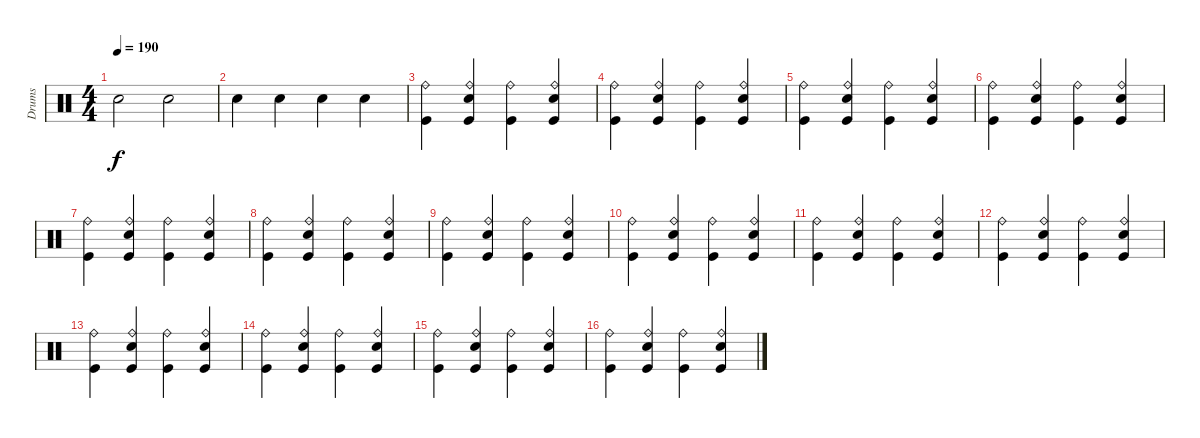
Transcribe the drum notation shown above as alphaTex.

\track ("Drums" "Drums") {instrument percussion}
\staff {score}
\articulation defaults
\ts (4 4)
\tempo 190
\clef neutral
\ks c "Electric Snare (hit)".2{dy f} "Electric Snare (hit)".2
|
"Electric Snare (hit)".4 "Electric Snare (hit)".4 "Electric Snare (hit)".4 "Electric Snare (hit)".4 |
("Kick (hit)" "Ride (bell)").4 ("Kick (hit)" "Snare (hit) 2" "Ride (bell)").4 ("Kick (hit)" "Ride (bell)").4 ("Kick (hit)" "Snare (hit) 2" "Ride (bell)").4 |
("Kick (hit)" "Ride (bell)").4 ("Kick (hit)" "Snare (hit) 2" "Ride (bell)").4 ("Kick (hit)" "Ride (bell)").4 ("Kick (hit)" "Snare (hit) 2" "Ride (bell)").4 |
("Kick (hit)" "Ride (bell)").4 ("Kick (hit)" "Snare (hit) 2" "Ride (bell)").4 ("Kick (hit)" "Ride (bell)").4 ("Kick (hit)" "Snare (hit) 2" "Ride (bell)").4 |
("Kick (hit)" "Ride (bell)").4 ("Kick (hit)" "Snare (hit) 2" "Ride (bell)").4 ("Kick (hit)" "Ride (bell)").4 ("Kick (hit)" "Snare (hit) 2" "Ride (bell)").4 |
("Kick (hit)" "Ride (bell)").4 ("Kick (hit)" "Snare (hit) 2" "Ride (bell)").4 ("Kick (hit)" "Ride (bell)").4 ("Kick (hit)" "Snare (hit) 2" "Ride (bell)").4 |
("Kick (hit)" "Ride (bell)").4 ("Kick (hit)" "Snare (hit) 2" "Ride (bell)").4 ("Kick (hit)" "Ride (bell)").4 ("Kick (hit)" "Snare (hit) 2" "Ride (bell)").4 |
("Kick (hit)" "Ride (bell)").4 ("Kick (hit)" "Snare (hit) 2" "Ride (bell)").4 ("Kick (hit)" "Ride (bell)").4 ("Kick (hit)" "Snare (hit) 2" "Ride (bell)").4 |
("Kick (hit)" "Ride (bell)").4 ("Kick (hit)" "Snare (hit) 2" "Ride (bell)").4 ("Kick (hit)" "Ride (bell)").4 ("Kick (hit)" "Snare (hit) 2" "Ride (bell)").4 |
("Kick (hit)" "Ride (bell)").4 ("Kick (hit)" "Snare (hit) 2" "Ride (bell)").4 ("Kick (hit)" "Ride (bell)").4 ("Kick (hit)" "Snare (hit) 2" "Ride (bell)").4 |
("Kick (hit)" "Ride (bell)").4 ("Kick (hit)" "Snare (hit) 2" "Ride (bell)").4 ("Kick (hit)" "Ride (bell)").4 ("Kick (hit)" "Snare (hit) 2" "Ride (bell)").4 |
("Kick (hit)" "Ride (bell)").4 ("Kick (hit)" "Snare (hit) 2" "Ride (bell)").4 ("Kick (hit)" "Ride (bell)").4 ("Kick (hit)" "Snare (hit) 2" "Ride (bell)").4 |
("Kick (hit)" "Ride (bell)").4 ("Kick (hit)" "Snare (hit) 2" "Ride (bell)").4 ("Kick (hit)" "Ride (bell)").4 ("Kick (hit)" "Snare (hit) 2" "Ride (bell)").4 |
("Kick (hit)" "Ride (bell)").4 ("Kick (hit)" "Snare (hit) 2" "Ride (bell)").4 ("Kick (hit)" "Ride (bell)").4 ("Kick (hit)" "Snare (hit) 2" "Ride (bell)").4 |
("Kick (hit)" "Ride (bell)").4 ("Kick (hit)" "Snare (hit) 2" "Ride (bell)").4 ("Kick (hit)" "Ride (bell)").4 ("Kick (hit)" "Snare (hit) 2" "Ride (bell)").4
